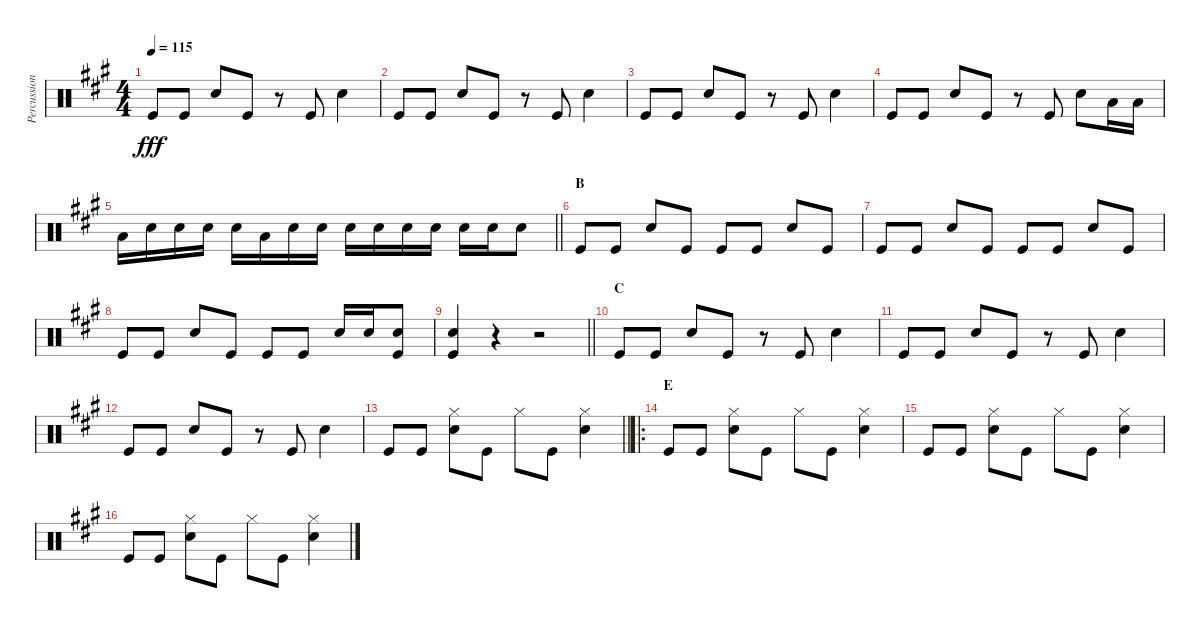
\track ("Percussioni" "Percussion") {instrument percussion}
\staff {score}
\articulation defaults
\ts (4 4)
\tempo 115
\clef neutral
\ks a "Kick (hit)".8{dy fff} "Kick (hit)".8 "Snare (hit) 2".8 "Kick (hit)".8
r.8 "Kick (hit)".8 "Snare (hit) 2".4 |
"Kick (hit)".8 "Kick (hit)".8 "Snare (hit) 2".8 "Kick (hit)".8 r.8 "Kick (hit)".8 "Snare (hit) 2".4 |
"Kick (hit)".8 "Kick (hit)".8 "Snare (hit) 2".8 "Kick (hit)".8 r.8 "Kick (hit)".8 "Snare (hit) 2".4 |
"Kick (hit)".8 "Kick (hit)".8 "Snare (hit) 2".8 "Kick (hit)".8 r.8 "Kick (hit)".8 "Snare (hit) 2".8 "Low Tom (hit)".16 "Low Tom (hit)".16 |
\barLineRight lightlight "Low Tom (hit)".16 "Snare (hit) 2".16 "Snare (hit) 2".16 "Snare (hit) 2".16 "Snare (hit) 2".16 "Low Tom (hit)".16 "Snare (hit) 2".16 "Snare (hit) 2".16 "Snare (hit) 2".16 "Snare (hit) 2".16 "Snare (hit) 2".16 "Snare (hit) 2".16 "Snare (hit) 2".16 "Snare (hit) 2".16 "Snare (hit) 2".8
|
\section ("" "B")
"Kick (hit)".8 "Kick (hit)".8 "Snare (hit) 2".8 "Kick (hit)".8 "Kick (hit)".8 "Kick (hit)".8 "Snare (hit) 2".8 "Kick (hit)".8 |
"Kick (hit)".8 "Kick (hit)".8 "Snare (hit) 2".8 "Kick (hit)".8 "Kick (hit)".8 "Kick (hit)".8 "Snare (hit) 2".8 "Kick (hit)".8 |
"Kick (hit)".8 "Kick (hit)".8 "Snare (hit) 2".8 "Kick (hit)".8 "Kick (hit)".8 "Kick (hit)".8 "Snare (hit) 2".16 "Snare (hit) 2".16 ("Snare (hit) 2" "Kick (hit)").8 |
\barLineRight lightlight
("Snare (hit) 2" "Kick (hit)").4 r.4 r.2 |
\section ("" "C")
"Kick (hit)".8 "Kick (hit)".8 "Snare (hit) 2".8 "Kick (hit)".8 r.8 "Kick (hit)".8 "Snare (hit) 2".4 |
"Kick (hit)".8 "Kick (hit)".8 "Snare (hit) 2".8 "Kick (hit)".8 r.8 "Kick (hit)".8 "Snare (hit) 2".4 |
"Kick (hit)".8 "Kick (hit)".8 "Snare (hit) 2".8 "Kick (hit)".8 r.8 "Kick (hit)".8 "Snare (hit) 2".4 |
\barLineRight lightlight "Kick (hit)".8 "Kick (hit)".8
("Hi-Hat (closed)" "Snare (hit) 2").8 "Kick (hit)".8 "Hi-Hat (closed)".8 "Kick (hit)".8 ("Hi-Hat (closed)" "Snare (hit) 2").4 |
\ro
\section ("" "E")
"Kick (hit)".8 "Kick (hit)".8 ("Hi-Hat (closed)" "Snare (hit) 2").8 "Kick (hit)".8 "Hi-Hat (closed)".8 "Kick (hit)".8 ("Hi-Hat (closed)" "Snare (hit) 2").4 |
"Kick (hit)".8 "Kick (hit)".8 ("Hi-Hat (closed)" "Snare (hit) 2").8 "Kick (hit)".8 "Hi-Hat (closed)".8 "Kick (hit)".8 ("Hi-Hat (closed)" "Snare (hit) 2").4 |
"Kick (hit)".8 "Kick (hit)".8 ("Hi-Hat (closed)" "Snare (hit) 2").8 "Kick (hit)".8 "Hi-Hat (closed)".8 "Kick (hit)".8 ("Hi-Hat (closed)" "Snare (hit) 2").4
